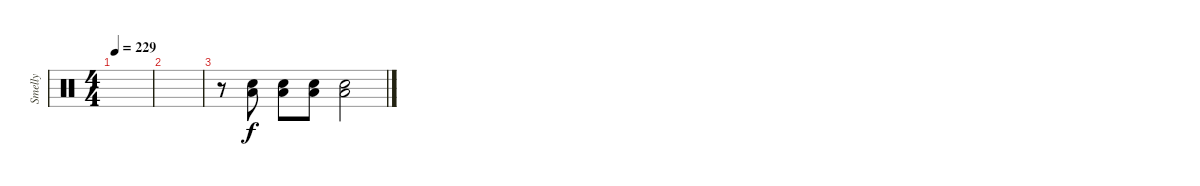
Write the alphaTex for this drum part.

\track ("Smelly" "Smelly") {instrument percussion}
\staff {score}
\articulation defaults
\ts (4 4)
\tempo 229
\clef neutral
\ks c
|
|
r.8 ("Electric Snare (hit)" "Low Floor Tom (hit)").8{dy f} ("Electric Snare (hit)" "Low Floor Tom (hit)").8 ("Electric Snare (hit)" "Low Floor Tom (hit)").8 ("Electric Snare (hit)" "Low Floor Tom (hit)").2
